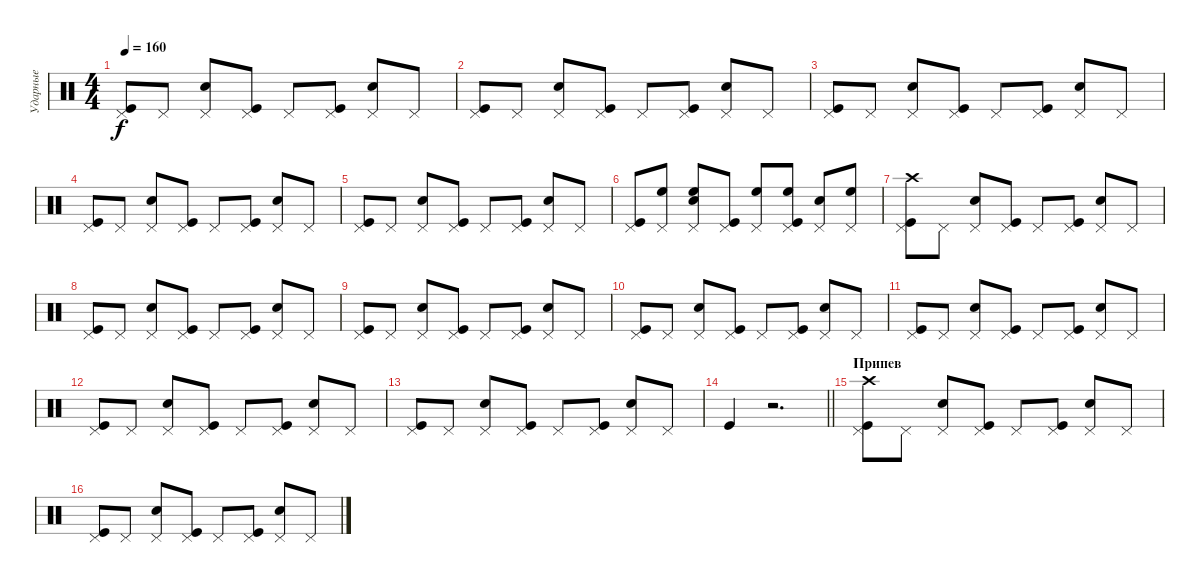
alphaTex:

\track ("Ударные" "Ударные") {instrument percussion}
\staff {score}
\articulation defaults
\ts (4 4)
\tempo 160
\clef neutral
\ks c
("Pedal Hi-Hat (hit)" "Kick (hit)").8{dy f} "Pedal Hi-Hat (hit)".8 ("Pedal Hi-Hat (hit)" "Snare (hit) 2").8 ("Pedal Hi-Hat (hit)" "Kick (hit)").8 "Pedal Hi-Hat (hit)".8 ("Pedal Hi-Hat (hit)" "Kick (hit)").8 ("Pedal Hi-Hat (hit)" "Snare (hit) 2").8 "Pedal Hi-Hat (hit)".8 |
("Pedal Hi-Hat (hit)" "Kick (hit)").8 "Pedal Hi-Hat (hit)".8 ("Pedal Hi-Hat (hit)" "Snare (hit) 2").8 ("Pedal Hi-Hat (hit)" "Kick (hit)").8 "Pedal Hi-Hat (hit)".8 ("Pedal Hi-Hat (hit)" "Kick (hit)").8 ("Pedal Hi-Hat (hit)" "Snare (hit) 2").8 "Pedal Hi-Hat (hit)".8 |
("Pedal Hi-Hat (hit)" "Kick (hit)").8 "Pedal Hi-Hat (hit)".8 ("Pedal Hi-Hat (hit)" "Snare (hit) 2").8 ("Pedal Hi-Hat (hit)" "Kick (hit)").8 "Pedal Hi-Hat (hit)".8 ("Pedal Hi-Hat (hit)" "Kick (hit)").8 ("Pedal Hi-Hat (hit)" "Snare (hit) 2").8 "Pedal Hi-Hat (hit)".8 |
("Pedal Hi-Hat (hit)" "Kick (hit)").8 "Pedal Hi-Hat (hit)".8 ("Pedal Hi-Hat (hit)" "Snare (hit) 2").8 ("Pedal Hi-Hat (hit)" "Kick (hit)").8 "Pedal Hi-Hat (hit)".8 ("Pedal Hi-Hat (hit)" "Kick (hit)").8 ("Pedal Hi-Hat (hit)" "Snare (hit) 2").8 "Pedal Hi-Hat (hit)".8 |
("Pedal Hi-Hat (hit)" "Kick (hit)").8 "Pedal Hi-Hat (hit)".8 ("Pedal Hi-Hat (hit)" "Snare (hit) 2").8 ("Pedal Hi-Hat (hit)" "Kick (hit)").8 "Pedal Hi-Hat (hit)".8 ("Pedal Hi-Hat (hit)" "Kick (hit)").8 ("Pedal Hi-Hat (hit)" "Snare (hit) 2").8 "Pedal Hi-Hat (hit)".8 |
("Pedal Hi-Hat (hit)" "Kick (hit)").8 ("Pedal Hi-Hat (hit)" "High Floor Tom (hit)").8 ("Pedal Hi-Hat (hit)" "High Floor Tom (hit)" "Snare (hit) 2").8 ("Pedal Hi-Hat (hit)" "Kick (hit)").8 ("Pedal Hi-Hat (hit)" "High Floor Tom (hit)").8 ("Pedal Hi-Hat (hit)" "High Floor Tom (hit)" "Kick (hit)").8 ("Pedal Hi-Hat (hit)" "Snare (hit) 2").8 ("Pedal Hi-Hat (hit)" "High Floor Tom (hit)").8 |
("Pedal Hi-Hat (hit)" "Crash high (hit)" "Kick (hit)").8 "Pedal Hi-Hat (hit)".8 ("Pedal Hi-Hat (hit)" "Snare (hit) 2").8 ("Pedal Hi-Hat (hit)" "Kick (hit)").8 "Pedal Hi-Hat (hit)".8 ("Pedal Hi-Hat (hit)" "Kick (hit)").8 ("Pedal Hi-Hat (hit)" "Snare (hit) 2").8 "Pedal Hi-Hat (hit)".8 |
("Pedal Hi-Hat (hit)" "Kick (hit)").8 "Pedal Hi-Hat (hit)".8 ("Pedal Hi-Hat (hit)" "Snare (hit) 2").8 ("Pedal Hi-Hat (hit)" "Kick (hit)").8 "Pedal Hi-Hat (hit)".8 ("Pedal Hi-Hat (hit)" "Kick (hit)").8 ("Pedal Hi-Hat (hit)" "Snare (hit) 2").8 "Pedal Hi-Hat (hit)".8 |
("Pedal Hi-Hat (hit)" "Kick (hit)").8 "Pedal Hi-Hat (hit)".8 ("Pedal Hi-Hat (hit)" "Snare (hit) 2").8 ("Pedal Hi-Hat (hit)" "Kick (hit)").8 "Pedal Hi-Hat (hit)".8 ("Pedal Hi-Hat (hit)" "Kick (hit)").8 ("Pedal Hi-Hat (hit)" "Snare (hit) 2").8 "Pedal Hi-Hat (hit)".8 |
("Pedal Hi-Hat (hit)" "Kick (hit)").8 "Pedal Hi-Hat (hit)".8 ("Pedal Hi-Hat (hit)" "Snare (hit) 2").8 ("Pedal Hi-Hat (hit)" "Kick (hit)").8 "Pedal Hi-Hat (hit)".8 ("Pedal Hi-Hat (hit)" "Kick (hit)").8 ("Pedal Hi-Hat (hit)" "Snare (hit) 2").8 "Pedal Hi-Hat (hit)".8 |
("Pedal Hi-Hat (hit)" "Kick (hit)").8 "Pedal Hi-Hat (hit)".8 ("Pedal Hi-Hat (hit)" "Snare (hit) 2").8 ("Pedal Hi-Hat (hit)" "Kick (hit)").8 "Pedal Hi-Hat (hit)".8 ("Pedal Hi-Hat (hit)" "Kick (hit)").8 ("Pedal Hi-Hat (hit)" "Snare (hit) 2").8 "Pedal Hi-Hat (hit)".8 |
("Pedal Hi-Hat (hit)" "Kick (hit)").8 "Pedal Hi-Hat (hit)".8 ("Pedal Hi-Hat (hit)" "Snare (hit) 2").8 ("Pedal Hi-Hat (hit)" "Kick (hit)").8 "Pedal Hi-Hat (hit)".8 ("Pedal Hi-Hat (hit)" "Kick (hit)").8 ("Pedal Hi-Hat (hit)" "Snare (hit) 2").8 "Pedal Hi-Hat (hit)".8 |
("Pedal Hi-Hat (hit)" "Kick (hit)").8 "Pedal Hi-Hat (hit)".8 ("Pedal Hi-Hat (hit)" "Snare (hit) 2").8 ("Pedal Hi-Hat (hit)" "Kick (hit)").8 "Pedal Hi-Hat (hit)".8 ("Pedal Hi-Hat (hit)" "Kick (hit)").8 ("Pedal Hi-Hat (hit)" "Snare (hit) 2").8 "Pedal Hi-Hat (hit)".8 |
\barLineRight lightlight "Kick (hit)".4
r.2{d} |
\section ("" "Припев")
("Pedal Hi-Hat (hit)" "Crash high (hit)" "Kick (hit)").8 "Pedal Hi-Hat (hit)".8 ("Pedal Hi-Hat (hit)" "Snare (hit) 2").8 ("Pedal Hi-Hat (hit)" "Kick (hit)").8 "Pedal Hi-Hat (hit)".8 ("Pedal Hi-Hat (hit)" "Kick (hit)").8 ("Pedal Hi-Hat (hit)" "Snare (hit) 2").8 "Pedal Hi-Hat (hit)".8 |
("Pedal Hi-Hat (hit)" "Kick (hit)").8 "Pedal Hi-Hat (hit)".8 ("Pedal Hi-Hat (hit)" "Snare (hit) 2").8 ("Pedal Hi-Hat (hit)" "Kick (hit)").8 "Pedal Hi-Hat (hit)".8 ("Pedal Hi-Hat (hit)" "Kick (hit)").8 ("Pedal Hi-Hat (hit)" "Snare (hit) 2").8 "Pedal Hi-Hat (hit)".8
